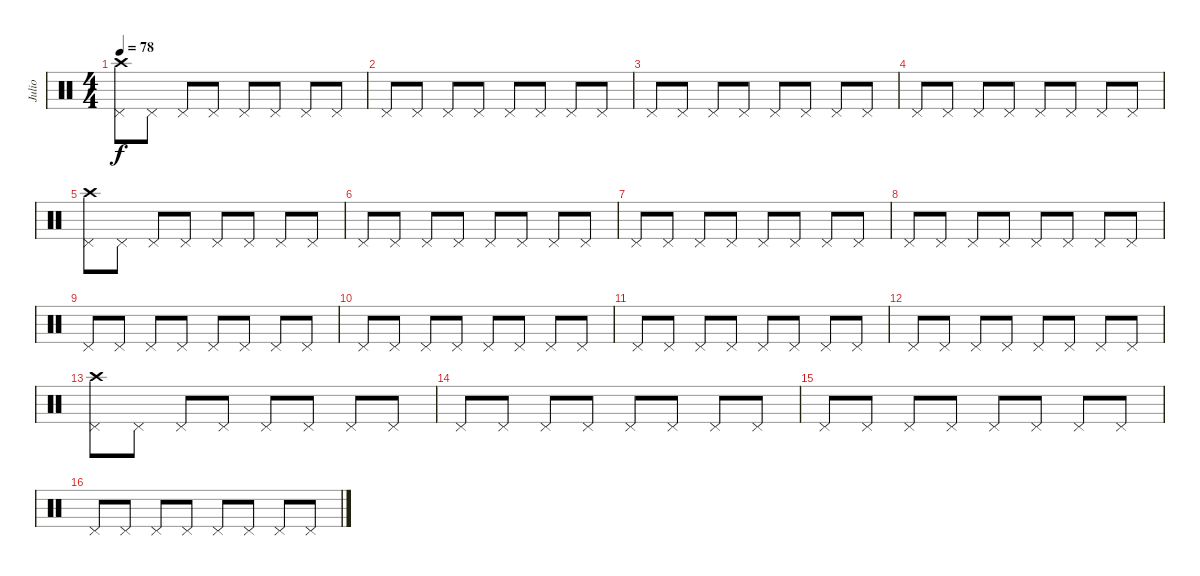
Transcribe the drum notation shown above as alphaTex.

\track ("Julio" "Julio") {instrument percussion}
\staff {score}
\articulation defaults
\ts (4 4)
\tempo 78
\clef neutral
\ks c
("Crash high (hit)" "Pedal Hi-Hat (hit)").8{dy f} "Pedal Hi-Hat (hit)".8 "Pedal Hi-Hat (hit)".8 "Pedal Hi-Hat (hit)".8 "Pedal Hi-Hat (hit)".8 "Pedal Hi-Hat (hit)".8 "Pedal Hi-Hat (hit)".8 "Pedal Hi-Hat (hit)".8 |
"Pedal Hi-Hat (hit)".8 "Pedal Hi-Hat (hit)".8 "Pedal Hi-Hat (hit)".8 "Pedal Hi-Hat (hit)".8 "Pedal Hi-Hat (hit)".8 "Pedal Hi-Hat (hit)".8 "Pedal Hi-Hat (hit)".8 "Pedal Hi-Hat (hit)".8 |
"Pedal Hi-Hat (hit)".8 "Pedal Hi-Hat (hit)".8 "Pedal Hi-Hat (hit)".8 "Pedal Hi-Hat (hit)".8 "Pedal Hi-Hat (hit)".8 "Pedal Hi-Hat (hit)".8 "Pedal Hi-Hat (hit)".8 "Pedal Hi-Hat (hit)".8 |
"Pedal Hi-Hat (hit)".8 "Pedal Hi-Hat (hit)".8 "Pedal Hi-Hat (hit)".8 "Pedal Hi-Hat (hit)".8 "Pedal Hi-Hat (hit)".8 "Pedal Hi-Hat (hit)".8 "Pedal Hi-Hat (hit)".8 "Pedal Hi-Hat (hit)".8 |
("Crash high (hit)" "Pedal Hi-Hat (hit)").8 "Pedal Hi-Hat (hit)".8 "Pedal Hi-Hat (hit)".8 "Pedal Hi-Hat (hit)".8 "Pedal Hi-Hat (hit)".8 "Pedal Hi-Hat (hit)".8 "Pedal Hi-Hat (hit)".8 "Pedal Hi-Hat (hit)".8 |
"Pedal Hi-Hat (hit)".8 "Pedal Hi-Hat (hit)".8 "Pedal Hi-Hat (hit)".8 "Pedal Hi-Hat (hit)".8 "Pedal Hi-Hat (hit)".8 "Pedal Hi-Hat (hit)".8 "Pedal Hi-Hat (hit)".8 "Pedal Hi-Hat (hit)".8 |
"Pedal Hi-Hat (hit)".8 "Pedal Hi-Hat (hit)".8 "Pedal Hi-Hat (hit)".8 "Pedal Hi-Hat (hit)".8 "Pedal Hi-Hat (hit)".8 "Pedal Hi-Hat (hit)".8 "Pedal Hi-Hat (hit)".8 "Pedal Hi-Hat (hit)".8 |
"Pedal Hi-Hat (hit)".8 "Pedal Hi-Hat (hit)".8 "Pedal Hi-Hat (hit)".8 "Pedal Hi-Hat (hit)".8 "Pedal Hi-Hat (hit)".8 "Pedal Hi-Hat (hit)".8 "Pedal Hi-Hat (hit)".8 "Pedal Hi-Hat (hit)".8 |
"Pedal Hi-Hat (hit)".8 "Pedal Hi-Hat (hit)".8 "Pedal Hi-Hat (hit)".8 "Pedal Hi-Hat (hit)".8 "Pedal Hi-Hat (hit)".8 "Pedal Hi-Hat (hit)".8 "Pedal Hi-Hat (hit)".8 "Pedal Hi-Hat (hit)".8 |
"Pedal Hi-Hat (hit)".8 "Pedal Hi-Hat (hit)".8 "Pedal Hi-Hat (hit)".8 "Pedal Hi-Hat (hit)".8 "Pedal Hi-Hat (hit)".8 "Pedal Hi-Hat (hit)".8 "Pedal Hi-Hat (hit)".8 "Pedal Hi-Hat (hit)".8 |
"Pedal Hi-Hat (hit)".8 "Pedal Hi-Hat (hit)".8 "Pedal Hi-Hat (hit)".8 "Pedal Hi-Hat (hit)".8 "Pedal Hi-Hat (hit)".8 "Pedal Hi-Hat (hit)".8 "Pedal Hi-Hat (hit)".8 "Pedal Hi-Hat (hit)".8 |
"Pedal Hi-Hat (hit)".8 "Pedal Hi-Hat (hit)".8 "Pedal Hi-Hat (hit)".8 "Pedal Hi-Hat (hit)".8 "Pedal Hi-Hat (hit)".8 "Pedal Hi-Hat (hit)".8 "Pedal Hi-Hat (hit)".8 "Pedal Hi-Hat (hit)".8 |
("Crash high (hit)" "Pedal Hi-Hat (hit)").8 "Pedal Hi-Hat (hit)".8 "Pedal Hi-Hat (hit)".8 "Pedal Hi-Hat (hit)".8 "Pedal Hi-Hat (hit)".8 "Pedal Hi-Hat (hit)".8 "Pedal Hi-Hat (hit)".8 "Pedal Hi-Hat (hit)".8 |
"Pedal Hi-Hat (hit)".8 "Pedal Hi-Hat (hit)".8 "Pedal Hi-Hat (hit)".8 "Pedal Hi-Hat (hit)".8 "Pedal Hi-Hat (hit)".8 "Pedal Hi-Hat (hit)".8 "Pedal Hi-Hat (hit)".8 "Pedal Hi-Hat (hit)".8 |
"Pedal Hi-Hat (hit)".8 "Pedal Hi-Hat (hit)".8 "Pedal Hi-Hat (hit)".8 "Pedal Hi-Hat (hit)".8 "Pedal Hi-Hat (hit)".8 "Pedal Hi-Hat (hit)".8 "Pedal Hi-Hat (hit)".8 "Pedal Hi-Hat (hit)".8 |
"Pedal Hi-Hat (hit)".8 "Pedal Hi-Hat (hit)".8 "Pedal Hi-Hat (hit)".8 "Pedal Hi-Hat (hit)".8 "Pedal Hi-Hat (hit)".8 "Pedal Hi-Hat (hit)".8 "Pedal Hi-Hat (hit)".8 "Pedal Hi-Hat (hit)".8
